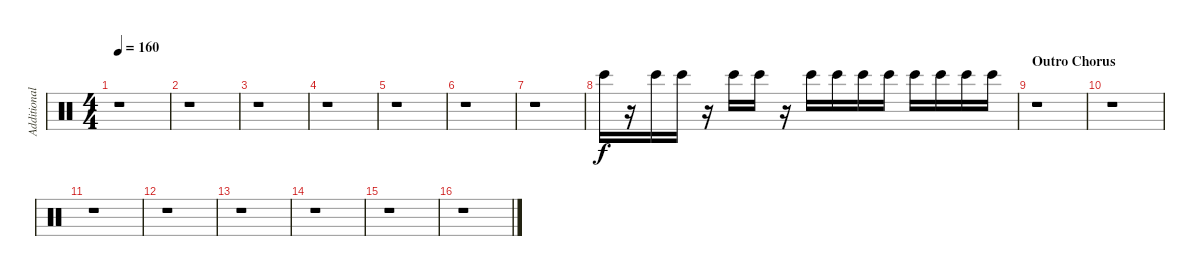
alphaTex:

\track ("Additional Percussion 2" "Additional") {instrument percussion}
\staff {score}
\articulation defaults
\ts (4 4)
\tempo 160
\clef neutral
\ks c
r.1{dy f} |
r.1 |
r.1 |
r.1 |
r.1 |
r.1 |
r.1 |
"Bongo High (hit)".16 r.16 "Bongo High (hit)".16 "Bongo High (hit)".16 r.16 "Bongo High (hit)".16 "Bongo High (hit)".16 r.16 "Bongo High (hit)".16 "Bongo High (hit)".16 "Bongo High (hit)".16 "Bongo High (hit)".16 "Bongo High (hit)".16 "Bongo High (hit)".16 "Bongo High (hit)".16 "Bongo High (hit)".16 |
\section ("" "Outro Chorus")
r.1 |
r.1 |
r.1 |
r.1 |
r.1 |
r.1 |
r.1 |
r.1
